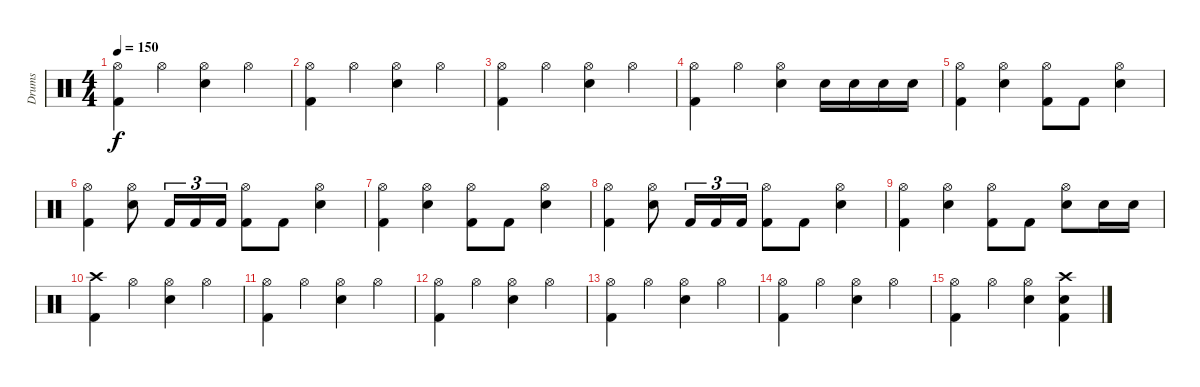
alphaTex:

\track ("Drums" "Drums") {instrument percussion}
\staff {score}
\articulation defaults
\ts (4 4)
\tempo 150
\clef neutral
\ks c
("Hi-Hat (open)" "Kick (hit) 2").4{dy f} "Hi-Hat (open)".4 ("Hi-Hat (open)" "Electric Snare (hit)").4 "Hi-Hat (open)".4 |
("Hi-Hat (open)" "Kick (hit) 2").4 "Hi-Hat (open)".4 ("Hi-Hat (open)" "Electric Snare (hit)").4 "Hi-Hat (open)".4 |
("Hi-Hat (open)" "Kick (hit) 2").4 "Hi-Hat (open)".4 ("Hi-Hat (open)" "Electric Snare (hit)").4 "Hi-Hat (open)".4 |
("Hi-Hat (open)" "Kick (hit) 2").4 "Hi-Hat (open)".4 ("Hi-Hat (open)" "Electric Snare (hit)").4 "Electric Snare (hit)".16 "Electric Snare (hit)".16 "Electric Snare (hit)".16 "Electric Snare (hit)".16 |
("Hi-Hat (open)" "Kick (hit) 2").4 ("Hi-Hat (open)" "Electric Snare (hit)").4 ("Hi-Hat (open)" "Kick (hit) 2").8 "Kick (hit) 2".8 ("Hi-Hat (open)" "Electric Snare (hit)").4 |
("Hi-Hat (open)" "Kick (hit) 2").4 ("Hi-Hat (open)" "Electric Snare (hit)").8 "Kick (hit) 2".16{tu (3 2)} "Kick (hit) 2".16{tu (3 2)} "Kick (hit) 2".16{tu (3 2)} ("Hi-Hat (open)" "Kick (hit) 2").8 "Kick (hit) 2".8 ("Hi-Hat (open)" "Electric Snare (hit)").4 |
("Hi-Hat (open)" "Kick (hit) 2").4 ("Hi-Hat (open)" "Electric Snare (hit)").4 ("Hi-Hat (open)" "Kick (hit) 2").8 "Kick (hit) 2".8 ("Hi-Hat (open)" "Electric Snare (hit)").4 |
("Hi-Hat (open)" "Kick (hit) 2").4 ("Hi-Hat (open)" "Electric Snare (hit)").8 "Kick (hit) 2".16{tu (3 2)} "Kick (hit) 2".16{tu (3 2)} "Kick (hit) 2".16{tu (3 2)} ("Hi-Hat (open)" "Kick (hit) 2").8 "Kick (hit) 2".8 ("Hi-Hat (open)" "Electric Snare (hit)").4 |
("Hi-Hat (open)" "Kick (hit) 2").4 ("Hi-Hat (open)" "Electric Snare (hit)").4 ("Hi-Hat (open)" "Kick (hit) 2").8 "Kick (hit) 2".8 ("Hi-Hat (open)" "Electric Snare (hit)").8 "Electric Snare (hit)".16 "Electric Snare (hit)".16 |
("Crash high (hit)" "Kick (hit) 2").4 "Hi-Hat (open)".4 ("Hi-Hat (open)" "Electric Snare (hit)").4 "Hi-Hat (open)".4 |
("Hi-Hat (open)" "Kick (hit) 2").4 "Hi-Hat (open)".4 ("Hi-Hat (open)" "Electric Snare (hit)").4 "Hi-Hat (open)".4 |
("Hi-Hat (open)" "Kick (hit) 2").4 "Hi-Hat (open)".4 ("Hi-Hat (open)" "Electric Snare (hit)").4 "Hi-Hat (open)".4 |
("Hi-Hat (open)" "Kick (hit) 2").4 "Hi-Hat (open)".4 ("Hi-Hat (open)" "Electric Snare (hit)").4 "Hi-Hat (open)".4 |
("Hi-Hat (open)" "Kick (hit) 2").4 "Hi-Hat (open)".4 ("Hi-Hat (open)" "Electric Snare (hit)").4 "Hi-Hat (open)".4 |
("Hi-Hat (open)" "Kick (hit) 2").4 "Hi-Hat (open)".4 ("Hi-Hat (open)" "Electric Snare (hit)").4 ("Crash high (hit)" "Kick (hit) 2" "Electric Snare (hit)").4
